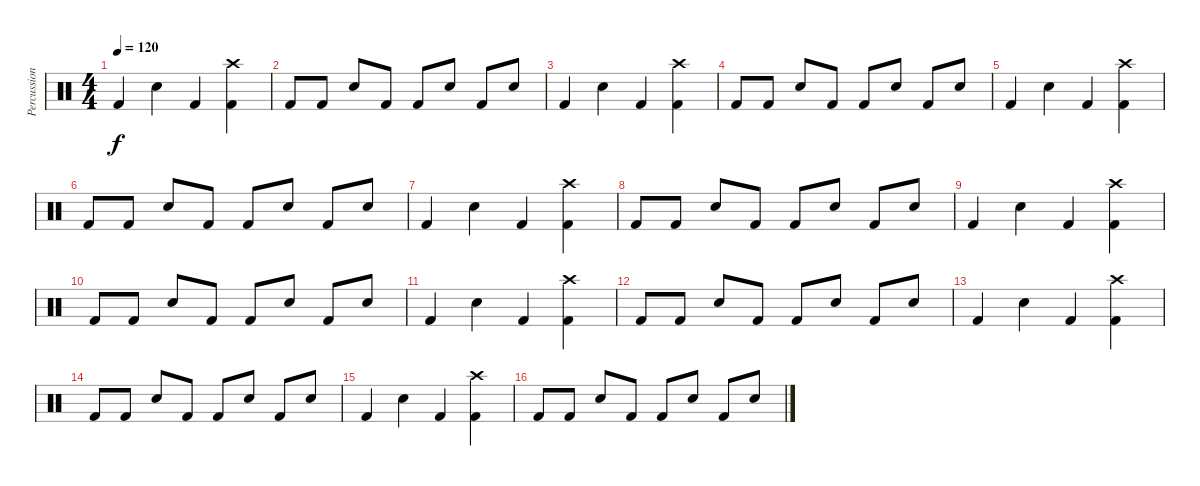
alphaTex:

\track ("Percussion" "Percussion") {instrument percussion}
\staff {score}
\articulation defaults
\ts (4 4)
\tempo 120
\clef neutral
\ks c "Kick (hit) 2".4{dy f} "Snare (hit) 2".4 "Kick (hit) 2".4
("Kick (hit) 2" "Crash high (hit)").4 |
"Kick (hit) 2".8 "Kick (hit) 2".8 "Snare (hit) 2".8 "Kick (hit) 2".8 "Kick (hit) 2".8 "Snare (hit) 2".8 "Kick (hit) 2".8 "Snare (hit) 2".8 |
"Kick (hit) 2".4 "Snare (hit) 2".4 "Kick (hit) 2".4 ("Kick (hit) 2" "Crash high (hit)").4 |
"Kick (hit) 2".8 "Kick (hit) 2".8 "Snare (hit) 2".8 "Kick (hit) 2".8 "Kick (hit) 2".8 "Snare (hit) 2".8 "Kick (hit) 2".8 "Snare (hit) 2".8 |
"Kick (hit) 2".4 "Snare (hit) 2".4 "Kick (hit) 2".4 ("Kick (hit) 2" "Crash high (hit)").4 |
"Kick (hit) 2".8 "Kick (hit) 2".8 "Snare (hit) 2".8 "Kick (hit) 2".8 "Kick (hit) 2".8 "Snare (hit) 2".8 "Kick (hit) 2".8 "Snare (hit) 2".8 |
"Kick (hit) 2".4 "Snare (hit) 2".4 "Kick (hit) 2".4 ("Kick (hit) 2" "Crash high (hit)").4 |
"Kick (hit) 2".8 "Kick (hit) 2".8 "Snare (hit) 2".8 "Kick (hit) 2".8 "Kick (hit) 2".8 "Snare (hit) 2".8 "Kick (hit) 2".8 "Snare (hit) 2".8 |
"Kick (hit) 2".4 "Snare (hit) 2".4 "Kick (hit) 2".4 ("Kick (hit) 2" "Crash high (hit)").4 |
"Kick (hit) 2".8 "Kick (hit) 2".8 "Snare (hit) 2".8 "Kick (hit) 2".8 "Kick (hit) 2".8 "Snare (hit) 2".8 "Kick (hit) 2".8 "Snare (hit) 2".8 |
"Kick (hit) 2".4 "Snare (hit) 2".4 "Kick (hit) 2".4 ("Kick (hit) 2" "Crash high (hit)").4 |
"Kick (hit) 2".8 "Kick (hit) 2".8 "Snare (hit) 2".8 "Kick (hit) 2".8 "Kick (hit) 2".8 "Snare (hit) 2".8 "Kick (hit) 2".8 "Snare (hit) 2".8 |
"Kick (hit) 2".4 "Snare (hit) 2".4 "Kick (hit) 2".4 ("Kick (hit) 2" "Crash high (hit)").4 |
"Kick (hit) 2".8 "Kick (hit) 2".8 "Snare (hit) 2".8 "Kick (hit) 2".8 "Kick (hit) 2".8 "Snare (hit) 2".8 "Kick (hit) 2".8 "Snare (hit) 2".8 |
"Kick (hit) 2".4 "Snare (hit) 2".4 "Kick (hit) 2".4 ("Kick (hit) 2" "Crash high (hit)").4 |
"Kick (hit) 2".8 "Kick (hit) 2".8 "Snare (hit) 2".8 "Kick (hit) 2".8 "Kick (hit) 2".8 "Snare (hit) 2".8 "Kick (hit) 2".8 "Snare (hit) 2".8
